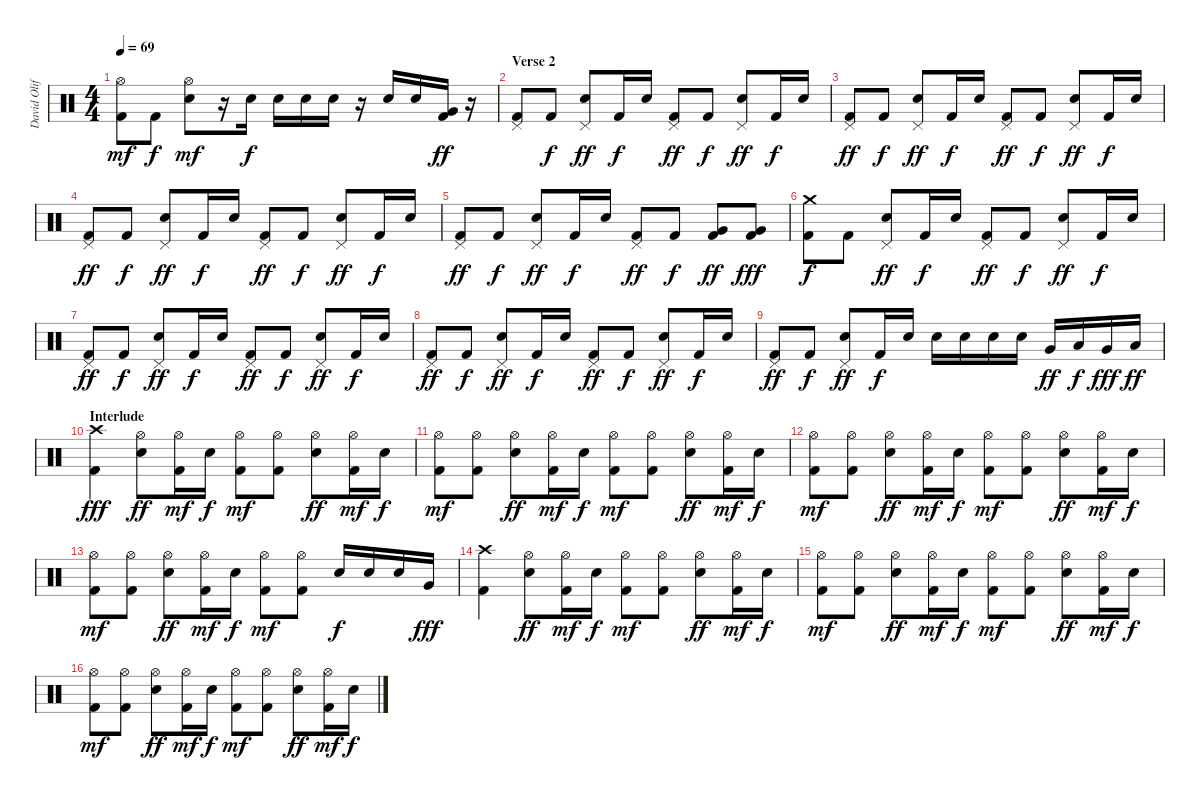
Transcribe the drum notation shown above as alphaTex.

\track ("David Oliffe" "David Olif") {instrument percussion}
\staff {score}
\articulation defaults
\ts (4 4)
\tempo 69
\clef neutral
\ks c
("Hi-Hat (open)" "Kick (hit) 2").8{dy mf} "Kick (hit) 2".8{dy f} ("Hi-Hat (open)" "Electric Snare (hit)").8{dy mf} r.16 "Electric Snare (hit)".16{dy f} "Electric Snare (hit)".16 "Electric Snare (hit)".16 "Electric Snare (hit)".16 r.16 "Electric Snare (hit)".16 "Electric Snare (hit)".16 ("Very Low Tom (hit)" "Kick (hit) 2").16{dy ff} r.16 |
\section ("" "Verse 2")
("Pedal Hi-Hat (hit)" "Kick (hit) 2").8 "Kick (hit) 2".8{dy f} ("Pedal Hi-Hat (hit)" "Electric Snare (hit)").8{dy ff} "Kick (hit) 2".16{dy f} "Electric Snare (hit)".16 ("Pedal Hi-Hat (hit)" "Kick (hit) 2").8{dy ff} "Kick (hit) 2".8{dy f} ("Pedal Hi-Hat (hit)" "Electric Snare (hit)").8{dy ff} "Kick (hit) 2".16{dy f} "Electric Snare (hit)".16 |
("Pedal Hi-Hat (hit)" "Kick (hit) 2").8{dy ff} "Kick (hit) 2".8{dy f} ("Pedal Hi-Hat (hit)" "Electric Snare (hit)").8{dy ff} "Kick (hit) 2".16{dy f} "Electric Snare (hit)".16 ("Pedal Hi-Hat (hit)" "Kick (hit) 2").8{dy ff} "Kick (hit) 2".8{dy f} ("Pedal Hi-Hat (hit)" "Electric Snare (hit)").8{dy ff} "Kick (hit) 2".16{dy f} "Electric Snare (hit)".16 |
("Pedal Hi-Hat (hit)" "Kick (hit) 2").8{dy ff} "Kick (hit) 2".8{dy f} ("Pedal Hi-Hat (hit)" "Electric Snare (hit)").8{dy ff} "Kick (hit) 2".16{dy f} "Electric Snare (hit)".16 ("Pedal Hi-Hat (hit)" "Kick (hit) 2").8{dy ff} "Kick (hit) 2".8{dy f} ("Pedal Hi-Hat (hit)" "Electric Snare (hit)").8{dy ff} "Kick (hit) 2".16{dy f} "Electric Snare (hit)".16 |
("Pedal Hi-Hat (hit)" "Kick (hit) 2").8{dy ff} "Kick (hit) 2".8{dy f} ("Pedal Hi-Hat (hit)" "Electric Snare (hit)").8{dy ff} "Kick (hit) 2".16{dy f} "Electric Snare (hit)".16 ("Pedal Hi-Hat (hit)" "Kick (hit) 2").8{dy ff} "Kick (hit) 2".8{dy f} ("Very Low Tom (hit)" "Kick (hit) 2").8{dy ff} ("Very Low Tom (hit)" "Kick (hit) 2").8{dy fff} |
("Crash medium (hit)" "Kick (hit) 2").8{dy f} "Kick (hit) 2".8 ("Pedal Hi-Hat (hit)" "Electric Snare (hit)").8{dy ff} "Kick (hit) 2".16{dy f} "Electric Snare (hit)".16 ("Pedal Hi-Hat (hit)" "Kick (hit) 2").8{dy ff} "Kick (hit) 2".8{dy f} ("Pedal Hi-Hat (hit)" "Electric Snare (hit)").8{dy ff} "Kick (hit) 2".16{dy f} "Electric Snare (hit)".16 |
("Pedal Hi-Hat (hit)" "Kick (hit) 2").8{dy ff} "Kick (hit) 2".8{dy f} ("Pedal Hi-Hat (hit)" "Electric Snare (hit)").8{dy ff} "Kick (hit) 2".16{dy f} "Electric Snare (hit)".16 ("Pedal Hi-Hat (hit)" "Kick (hit) 2").8{dy ff} "Kick (hit) 2".8{dy f} ("Pedal Hi-Hat (hit)" "Electric Snare (hit)").8{dy ff} "Kick (hit) 2".16{dy f} "Electric Snare (hit)".16 |
("Pedal Hi-Hat (hit)" "Kick (hit) 2").8{dy ff} "Kick (hit) 2".8{dy f} ("Pedal Hi-Hat (hit)" "Electric Snare (hit)").8{dy ff} "Kick (hit) 2".16{dy f} "Electric Snare (hit)".16 ("Pedal Hi-Hat (hit)" "Kick (hit) 2").8{dy ff} "Kick (hit) 2".8{dy f} ("Pedal Hi-Hat (hit)" "Electric Snare (hit)").8{dy ff} "Kick (hit) 2".16{dy f} "Electric Snare (hit)".16 |
("Pedal Hi-Hat (hit)" "Kick (hit) 2").8{dy ff} "Kick (hit) 2".8{dy f} ("Pedal Hi-Hat (hit)" "Electric Snare (hit)").8{dy ff} "Kick (hit) 2".16{dy f} "Electric Snare (hit)".16 "Electric Snare (hit)".16 "Electric Snare (hit)".16 "Electric Snare (hit)".16 "Electric Snare (hit)".16 "Very Low Tom (hit)".16{dy ff} "Low Tom (hit)".16{dy f} "Very Low Tom (hit)".16{dy fff} "Low Tom (hit)".16{dy ff} |
\section ("" "Interlude")
("Crash high (hit)" "Kick (hit) 2").4{dy fff} ("Hi-Hat (open)" "Electric Snare (hit)").8{dy ff} ("Hi-Hat (open)" "Kick (hit) 2").16{dy mf} "Electric Snare (hit)".16{dy f} ("Hi-Hat (open)" "Kick (hit) 2").8{dy mf} ("Hi-Hat (open)" "Kick (hit) 2").8 ("Hi-Hat (open)" "Electric Snare (hit)").8{dy ff} ("Hi-Hat (open)" "Kick (hit) 2").16{dy mf} "Electric Snare (hit)".16{dy f} |
("Hi-Hat (open)" "Kick (hit) 2").8{dy mf} ("Hi-Hat (open)" "Kick (hit) 2").8 ("Hi-Hat (open)" "Electric Snare (hit)").8{dy ff} ("Hi-Hat (open)" "Kick (hit) 2").16{dy mf} "Electric Snare (hit)".16{dy f} ("Hi-Hat (open)" "Kick (hit) 2").8{dy mf} ("Hi-Hat (open)" "Kick (hit) 2").8 ("Hi-Hat (open)" "Electric Snare (hit)").8{dy ff} ("Hi-Hat (open)" "Kick (hit) 2").16{dy mf} "Electric Snare (hit)".16{dy f} |
("Hi-Hat (open)" "Kick (hit) 2").8{dy mf} ("Hi-Hat (open)" "Kick (hit) 2").8 ("Hi-Hat (open)" "Electric Snare (hit)").8{dy ff} ("Hi-Hat (open)" "Kick (hit) 2").16{dy mf} "Electric Snare (hit)".16{dy f} ("Hi-Hat (open)" "Kick (hit) 2").8{dy mf} ("Hi-Hat (open)" "Kick (hit) 2").8 ("Hi-Hat (open)" "Electric Snare (hit)").8{dy ff} ("Hi-Hat (open)" "Kick (hit) 2").16{dy mf} "Electric Snare (hit)".16{dy f} |
("Hi-Hat (open)" "Kick (hit) 2").8{dy mf} ("Hi-Hat (open)" "Kick (hit) 2").8 ("Hi-Hat (open)" "Electric Snare (hit)").8{dy ff} ("Hi-Hat (open)" "Kick (hit) 2").16{dy mf} "Electric Snare (hit)".16{dy f} ("Hi-Hat (open)" "Kick (hit) 2").8{dy mf} ("Hi-Hat (open)" "Kick (hit) 2").8 "Electric Snare (hit)".16{dy f} "Electric Snare (hit)".16 "Electric Snare (hit)".16 "Very Low Tom (hit)".16{dy fff} |
("Crash high (hit)" "Kick (hit) 2").4 ("Hi-Hat (open)" "Electric Snare (hit)").8{dy ff} ("Hi-Hat (open)" "Kick (hit) 2").16{dy mf} "Electric Snare (hit)".16{dy f} ("Hi-Hat (open)" "Kick (hit) 2").8{dy mf} ("Hi-Hat (open)" "Kick (hit) 2").8 ("Hi-Hat (open)" "Electric Snare (hit)").8{dy ff} ("Hi-Hat (open)" "Kick (hit) 2").16{dy mf} "Electric Snare (hit)".16{dy f} |
("Hi-Hat (open)" "Kick (hit) 2").8{dy mf} ("Hi-Hat (open)" "Kick (hit) 2").8 ("Hi-Hat (open)" "Electric Snare (hit)").8{dy ff} ("Hi-Hat (open)" "Kick (hit) 2").16{dy mf} "Electric Snare (hit)".16{dy f} ("Hi-Hat (open)" "Kick (hit) 2").8{dy mf} ("Hi-Hat (open)" "Kick (hit) 2").8 ("Hi-Hat (open)" "Electric Snare (hit)").8{dy ff} ("Hi-Hat (open)" "Kick (hit) 2").16{dy mf} "Electric Snare (hit)".16{dy f} |
("Hi-Hat (open)" "Kick (hit) 2").8{dy mf} ("Hi-Hat (open)" "Kick (hit) 2").8 ("Hi-Hat (open)" "Electric Snare (hit)").8{dy ff} ("Hi-Hat (open)" "Kick (hit) 2").16{dy mf} "Electric Snare (hit)".16{dy f} ("Hi-Hat (open)" "Kick (hit) 2").8{dy mf} ("Hi-Hat (open)" "Kick (hit) 2").8 ("Hi-Hat (open)" "Electric Snare (hit)").8{dy ff} ("Hi-Hat (open)" "Kick (hit) 2").16{dy mf} "Electric Snare (hit)".16{dy f}
